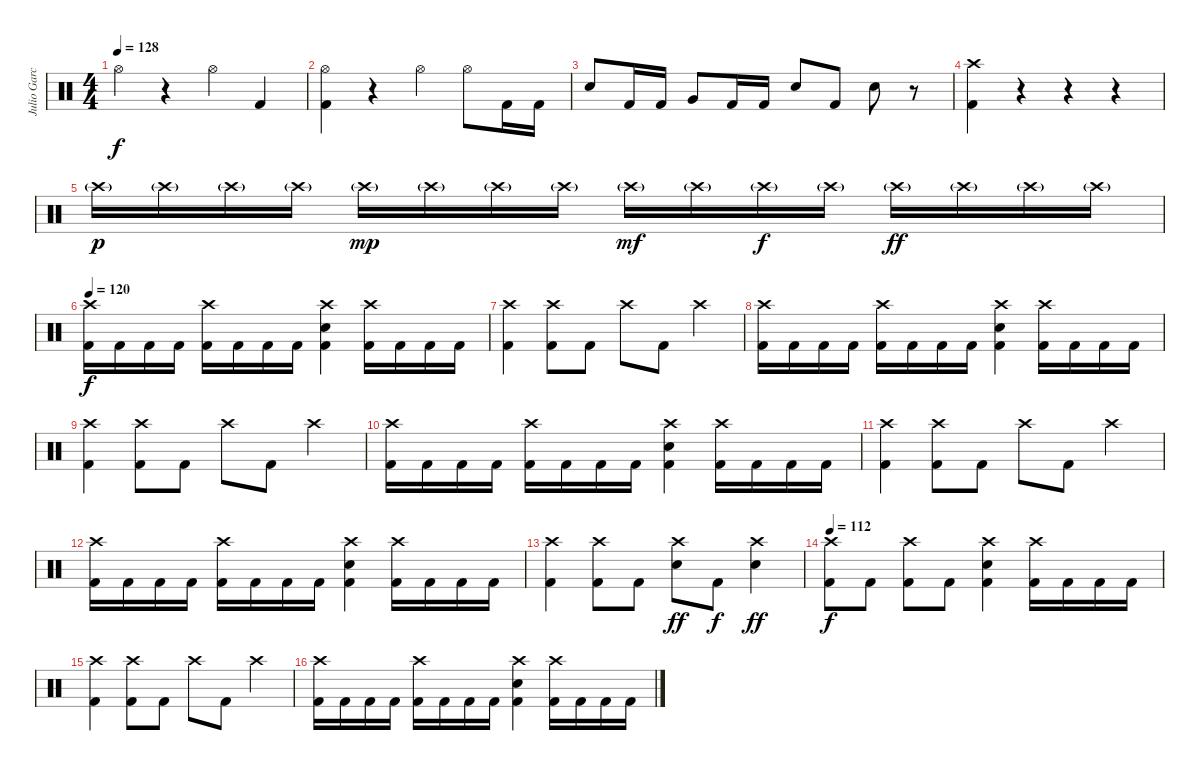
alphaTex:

\track ("Julio Garcia" "Julio Garc") {instrument percussion}
\staff {score}
\articulation defaults
\ts (4 4)
\tempo 128
\clef neutral
\ks c "Hi-Hat (open)".4{dy f}
r.4 "Hi-Hat (open)".4 "Kick (hit) 2".4 |
("Hi-Hat (open)" "Kick (hit) 2").4 r.4 "Hi-Hat (open)".4 "Hi-Hat (open)".8 "Kick (hit) 2".16 "Kick (hit) 2".16 |
"Electric Snare (hit)".8 "Kick (hit) 2".16 "Kick (hit) 2".16 "Very Low Tom (hit)".8 "Kick (hit) 2".16 "Kick (hit) 2".16 "Electric Snare (hit)".8 "Kick (hit) 2".8 "Electric Snare (hit)".8 r.8 |
("Crash high (hit)" "Kick (hit) 2").4 r.4 r.4 r.4 |
"Crash high (hit)"{g}.16{dy p} "Crash high (hit)"{g}.16 "Crash high (hit)"{g}.16 "Crash high (hit)"{g}.16 "Crash high (hit)"{g}.16{dy mp} "Crash high (hit)"{g}.16 "Crash high (hit)"{g}.16 "Crash high (hit)"{g}.16 "Crash high (hit)"{g}.16{dy mf} "Crash high (hit)"{g}.16 "Crash high (hit)"{g}.16{dy f} "Crash high (hit)"{g}.16 "Crash high (hit)"{g}.16{dy ff} "Crash high (hit)"{g}.16 "Crash high (hit)"{g}.16 "Crash high (hit)"{g}.16 |
\tempo 120
("Crash high (hit)" "Kick (hit) 2").16{dy f} "Kick (hit) 2".16 "Kick (hit) 2".16 "Kick (hit) 2".16 ("Crash high (hit)" "Kick (hit) 2").16 "Kick (hit) 2".16 "Kick (hit) 2".16 "Kick (hit) 2".16 ("Crash high (hit)" "Electric Snare (hit)" "Kick (hit) 2").4 ("Crash high (hit)" "Kick (hit) 2").16 "Kick (hit) 2".16 "Kick (hit) 2".16 "Kick (hit) 2".16 |
("Crash high (hit)" "Kick (hit) 2").4 ("Crash high (hit)" "Kick (hit) 2").8 "Kick (hit) 2".8 "Crash high (hit)".8 "Kick (hit) 2".8 "Crash high (hit)".4 |
("Crash high (hit)" "Kick (hit) 2").16 "Kick (hit) 2".16 "Kick (hit) 2".16 "Kick (hit) 2".16 ("Crash high (hit)" "Kick (hit) 2").16 "Kick (hit) 2".16 "Kick (hit) 2".16 "Kick (hit) 2".16 ("Crash high (hit)" "Electric Snare (hit)" "Kick (hit) 2").4 ("Crash high (hit)" "Kick (hit) 2").16 "Kick (hit) 2".16 "Kick (hit) 2".16 "Kick (hit) 2".16 |
("Crash high (hit)" "Kick (hit) 2").4 ("Crash high (hit)" "Kick (hit) 2").8 "Kick (hit) 2".8 "Crash high (hit)".8 "Kick (hit) 2".8 "Crash high (hit)".4 |
("Crash high (hit)" "Kick (hit) 2").16 "Kick (hit) 2".16 "Kick (hit) 2".16 "Kick (hit) 2".16 ("Crash high (hit)" "Kick (hit) 2").16 "Kick (hit) 2".16 "Kick (hit) 2".16 "Kick (hit) 2".16 ("Crash high (hit)" "Electric Snare (hit)" "Kick (hit) 2").4 ("Crash high (hit)" "Kick (hit) 2").16 "Kick (hit) 2".16 "Kick (hit) 2".16 "Kick (hit) 2".16 |
("Crash high (hit)" "Kick (hit) 2").4 ("Crash high (hit)" "Kick (hit) 2").8 "Kick (hit) 2".8 "Crash high (hit)".8 "Kick (hit) 2".8 "Crash high (hit)".4 |
("Crash high (hit)" "Kick (hit) 2").16 "Kick (hit) 2".16 "Kick (hit) 2".16 "Kick (hit) 2".16 ("Crash high (hit)" "Kick (hit) 2").16 "Kick (hit) 2".16 "Kick (hit) 2".16 "Kick (hit) 2".16 ("Crash high (hit)" "Electric Snare (hit)" "Kick (hit) 2").4 ("Crash high (hit)" "Kick (hit) 2").16 "Kick (hit) 2".16 "Kick (hit) 2".16 "Kick (hit) 2".16 |
("Crash high (hit)" "Kick (hit) 2").4 ("Crash high (hit)" "Kick (hit) 2").8 "Kick (hit) 2".8 ("Crash high (hit)" "Electric Snare (hit)").8{dy ff} "Kick (hit) 2".8{dy f} ("Crash high (hit)" "Electric Snare (hit)").4{dy ff} |
\tempo 112
("Crash high (hit)" "Kick (hit) 2").8{dy f} "Kick (hit) 2".8 ("Crash high (hit)" "Kick (hit) 2").8 "Kick (hit) 2".8 ("Crash high (hit)" "Electric Snare (hit)" "Kick (hit) 2").4 ("Crash high (hit)" "Kick (hit) 2").16 "Kick (hit) 2".16 "Kick (hit) 2".16 "Kick (hit) 2".16 |
("Crash high (hit)" "Kick (hit) 2").4 ("Crash high (hit)" "Kick (hit) 2").8 "Kick (hit) 2".8 "Crash high (hit)".8 "Kick (hit) 2".8 "Crash high (hit)".4 |
("Crash high (hit)" "Kick (hit) 2").16 "Kick (hit) 2".16 "Kick (hit) 2".16 "Kick (hit) 2".16 ("Crash high (hit)" "Kick (hit) 2").16 "Kick (hit) 2".16 "Kick (hit) 2".16 "Kick (hit) 2".16 ("Crash high (hit)" "Electric Snare (hit)" "Kick (hit) 2").4 ("Crash high (hit)" "Kick (hit) 2").16 "Kick (hit) 2".16 "Kick (hit) 2".16 "Kick (hit) 2".16
